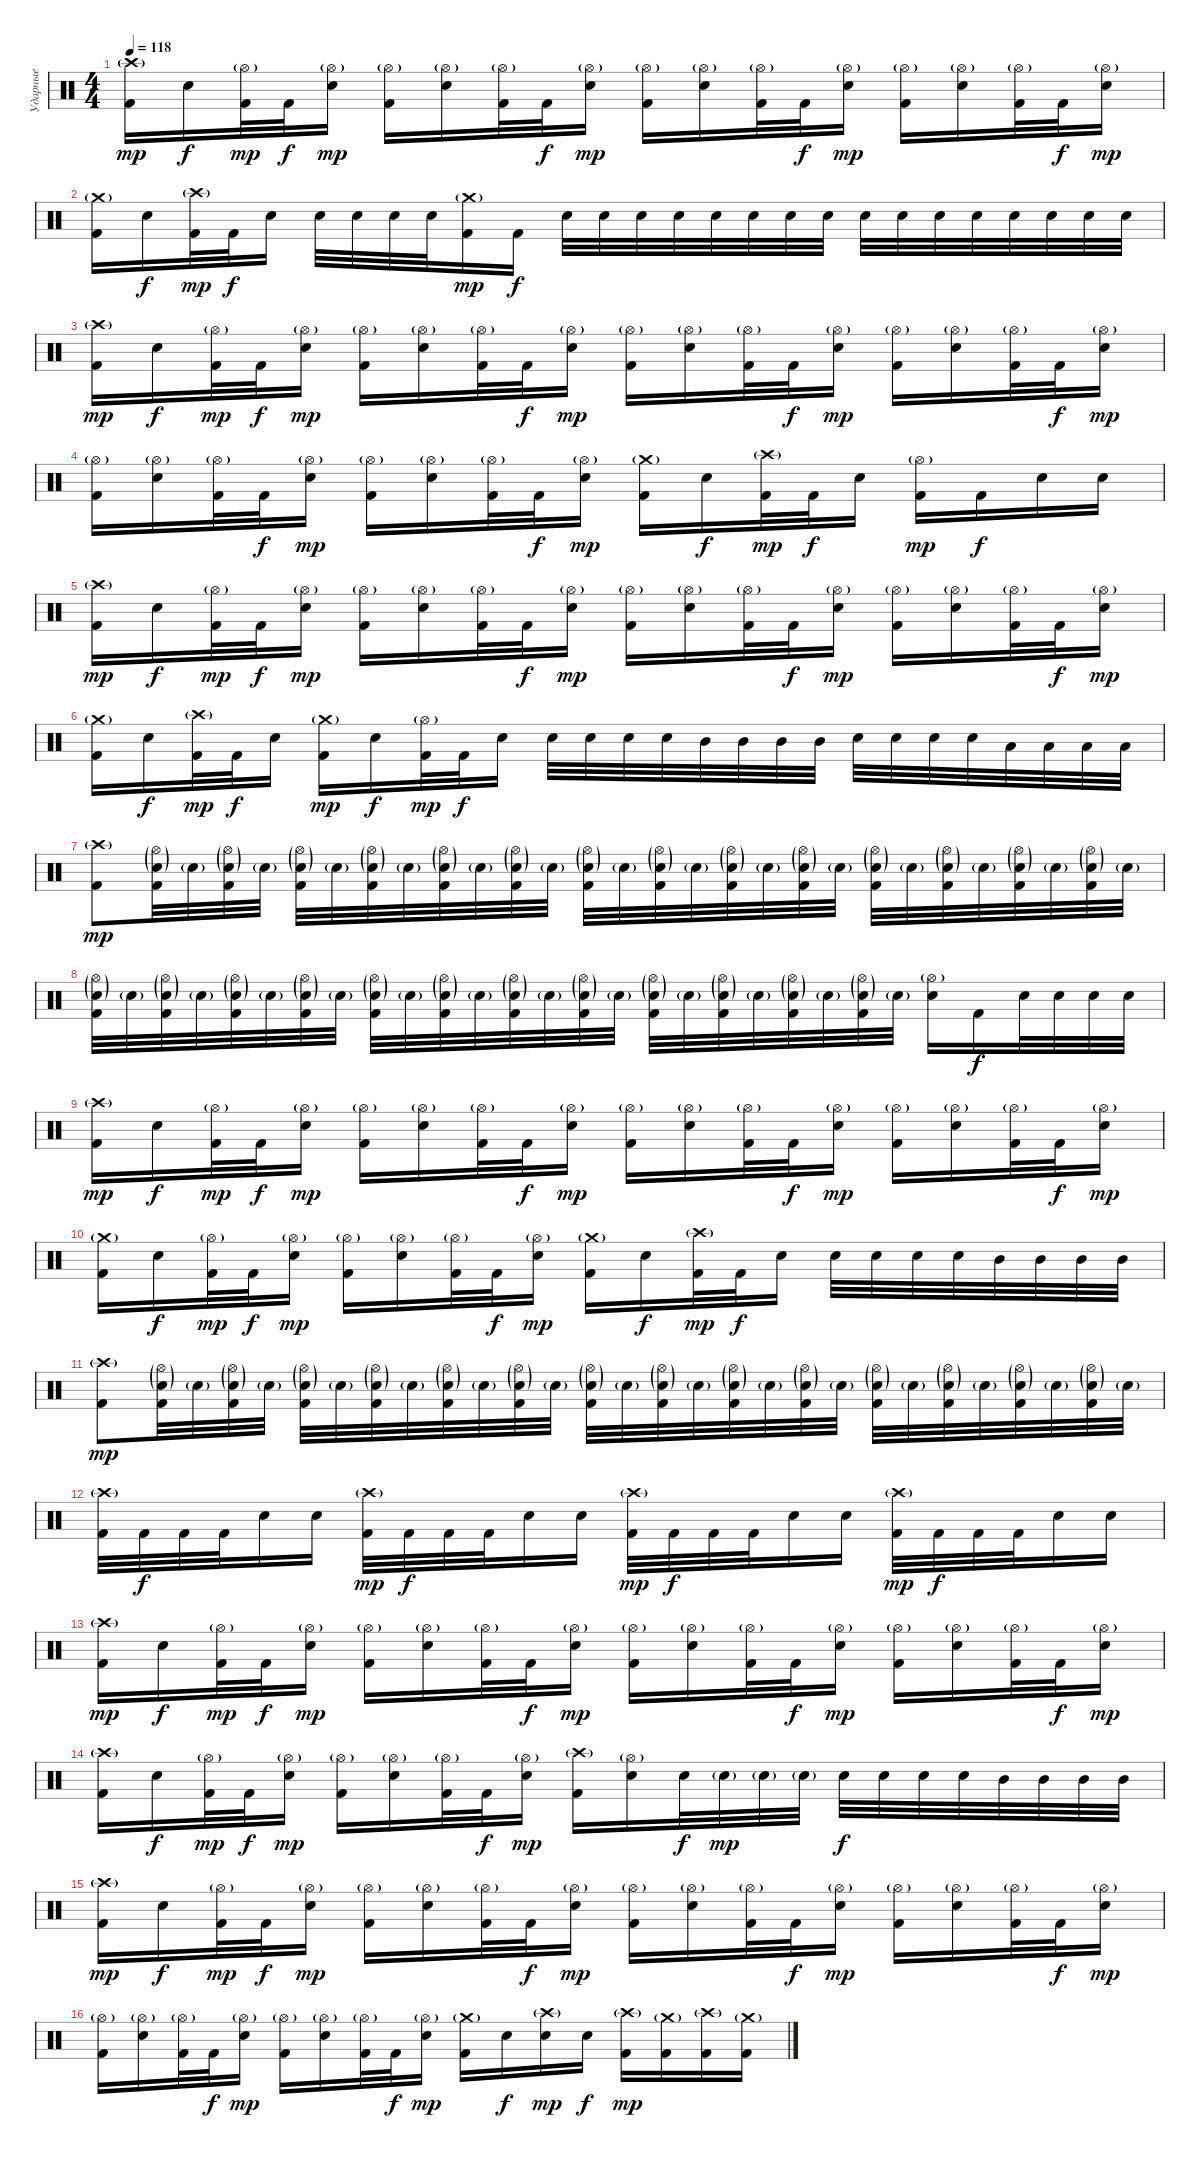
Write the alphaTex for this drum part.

\track ("Ударные" "Ударные") {instrument percussion}
\staff {score}
\articulation defaults
\ts (4 4)
\tempo 118
\clef neutral
\ks c
("Crash high (hit)"{g} "Kick (hit) 2").16{dy mp} "Electric Snare (hit)".16{dy f} ("Hi-Hat (open)"{g} "Kick (hit) 2").32{dy mp} "Kick (hit) 2".32{dy f} ("Hi-Hat (open)"{g} "Electric Snare (hit)").16{dy mp} ("Hi-Hat (open)"{g} "Kick (hit) 2").16 ("Hi-Hat (open)"{g} "Electric Snare (hit)").16 ("Hi-Hat (open)"{g} "Kick (hit) 2").32 "Kick (hit) 2".32{dy f} ("Hi-Hat (open)"{g} "Electric Snare (hit)").16{dy mp} ("Hi-Hat (open)"{g} "Kick (hit) 2").16 ("Hi-Hat (open)"{g} "Electric Snare (hit)").16 ("Hi-Hat (open)"{g} "Kick (hit) 2").32 "Kick (hit) 2".32{dy f} ("Hi-Hat (open)"{g} "Electric Snare (hit)").16{dy mp} ("Hi-Hat (open)"{g} "Kick (hit) 2").16 ("Hi-Hat (open)"{g} "Electric Snare (hit)").16 ("Hi-Hat (open)"{g} "Kick (hit) 2").32 "Kick (hit) 2".32{dy f} ("Hi-Hat (open)"{g} "Electric Snare (hit)").16{dy mp} |
("Crash medium (hit)"{g} "Kick (hit) 2").16 "Electric Snare (hit)".16{dy f} ("Crash high (hit)"{g} "Kick (hit) 2").32{dy mp} "Kick (hit) 2".32{dy f} "Electric Snare (hit)".16 "Electric Snare (hit)".32 "Electric Snare (hit)".32 "Electric Snare (hit)".32 "Electric Snare (hit)".32 ("Crash medium (hit)"{g} "Kick (hit) 2").16{dy mp} "Kick (hit) 2".16{dy f} "Electric Snare (hit)".32 "Electric Snare (hit)".32 "Electric Snare (hit)".32 "Electric Snare (hit)".32 "Electric Snare (hit)".32 "Electric Snare (hit)".32 "Electric Snare (hit)".32 "Electric Snare (hit)".32 "Electric Snare (hit)".32 "Electric Snare (hit)".32 "Electric Snare (hit)".32 "Electric Snare (hit)".32 "Electric Snare (hit)".32 "Electric Snare (hit)".32 "Electric Snare (hit)".32 "Electric Snare (hit)".32 |
("Crash high (hit)"{g} "Kick (hit) 2").16{dy mp} "Electric Snare (hit)".16{dy f} ("Hi-Hat (open)"{g} "Kick (hit) 2").32{dy mp} "Kick (hit) 2".32{dy f} ("Hi-Hat (open)"{g} "Electric Snare (hit)").16{dy mp} ("Hi-Hat (open)"{g} "Kick (hit) 2").16 ("Hi-Hat (open)"{g} "Electric Snare (hit)").16 ("Hi-Hat (open)"{g} "Kick (hit) 2").32 "Kick (hit) 2".32{dy f} ("Hi-Hat (open)"{g} "Electric Snare (hit)").16{dy mp} ("Hi-Hat (open)"{g} "Kick (hit) 2").16 ("Hi-Hat (open)"{g} "Electric Snare (hit)").16 ("Hi-Hat (open)"{g} "Kick (hit) 2").32 "Kick (hit) 2".32{dy f} ("Hi-Hat (open)"{g} "Electric Snare (hit)").16{dy mp} ("Hi-Hat (open)"{g} "Kick (hit) 2").16 ("Hi-Hat (open)"{g} "Electric Snare (hit)").16 ("Hi-Hat (open)"{g} "Kick (hit) 2").32 "Kick (hit) 2".32{dy f} ("Hi-Hat (open)"{g} "Electric Snare (hit)").16{dy mp} |
("Hi-Hat (open)"{g} "Kick (hit) 2").16 ("Hi-Hat (open)"{g} "Electric Snare (hit)").16 ("Hi-Hat (open)"{g} "Kick (hit) 2").32 "Kick (hit) 2".32{dy f} ("Hi-Hat (open)"{g} "Electric Snare (hit)").16{dy mp} ("Hi-Hat (open)"{g} "Kick (hit) 2").16 ("Hi-Hat (open)"{g} "Electric Snare (hit)").16 ("Hi-Hat (open)"{g} "Kick (hit) 2").32 "Kick (hit) 2".32{dy f} ("Hi-Hat (open)"{g} "Electric Snare (hit)").16{dy mp} ("Crash medium (hit)"{g} "Kick (hit) 2").16 "Electric Snare (hit)".16{dy f} ("Crash high (hit)"{g} "Kick (hit) 2").32{dy mp} "Kick (hit) 2".32{dy f} "Electric Snare (hit)".16 ("Hi-Hat (open)"{g} "Kick (hit) 2").16{dy mp} "Kick (hit) 2".16{dy f} "Electric Snare (hit)".16 "Electric Snare (hit)".16 |
("Crash high (hit)"{g} "Kick (hit) 2").16{dy mp} "Electric Snare (hit)".16{dy f} ("Hi-Hat (open)"{g} "Kick (hit) 2").32{dy mp} "Kick (hit) 2".32{dy f} ("Hi-Hat (open)"{g} "Electric Snare (hit)").16{dy mp} ("Hi-Hat (open)"{g} "Kick (hit) 2").16 ("Hi-Hat (open)"{g} "Electric Snare (hit)").16 ("Hi-Hat (open)"{g} "Kick (hit) 2").32 "Kick (hit) 2".32{dy f} ("Hi-Hat (open)"{g} "Electric Snare (hit)").16{dy mp} ("Hi-Hat (open)"{g} "Kick (hit) 2").16 ("Hi-Hat (open)"{g} "Electric Snare (hit)").16 ("Hi-Hat (open)"{g} "Kick (hit) 2").32 "Kick (hit) 2".32{dy f} ("Hi-Hat (open)"{g} "Electric Snare (hit)").16{dy mp} ("Hi-Hat (open)"{g} "Kick (hit) 2").16 ("Hi-Hat (open)"{g} "Electric Snare (hit)").16 ("Hi-Hat (open)"{g} "Kick (hit) 2").32 "Kick (hit) 2".32{dy f} ("Hi-Hat (open)"{g} "Electric Snare (hit)").16{dy mp} |
("Crash medium (hit)"{g} "Kick (hit) 2").16 "Electric Snare (hit)".16{dy f} ("Crash high (hit)"{g} "Kick (hit) 2").32{dy mp} "Kick (hit) 2".32{dy f} "Electric Snare (hit)".16 ("Crash medium (hit)"{g} "Kick (hit) 2").16{dy mp} "Electric Snare (hit)".16{dy f} ("Hi-Hat (open)"{g} "Kick (hit) 2").32{dy mp} "Kick (hit) 2".32{dy f} "Electric Snare (hit)".16 "Electric Snare (hit)".32 "Electric Snare (hit)".32 "Electric Snare (hit)".32 "Electric Snare (hit)".32 "Mid Tom (hit)".32 "Mid Tom (hit)".32 "Mid Tom (hit)".32 "Mid Tom (hit)".32 "Electric Snare (hit)".32 "Electric Snare (hit)".32 "Electric Snare (hit)".32 "Electric Snare (hit)".32 "Low Tom (hit)".32 "Low Tom (hit)".32 "Low Tom (hit)".32 "Low Tom (hit)".32 |
("Crash high (hit)"{g} "Kick (hit) 2").8{dy mp} ("Hi-Hat (open)"{g} "Electric Snare (hit)"{g} "Kick (hit) 2").32 "Electric Snare (hit)"{g}.32 ("Hi-Hat (open)"{g} "Electric Snare (hit)"{g} "Kick (hit) 2").32 "Electric Snare (hit)"{g}.32 ("Hi-Hat (open)"{g} "Electric Snare (hit)"{g} "Kick (hit) 2").32 "Electric Snare (hit)"{g}.32 ("Hi-Hat (open)"{g} "Electric Snare (hit)"{g} "Kick (hit) 2").32 "Electric Snare (hit)"{g}.32 ("Hi-Hat (open)"{g} "Electric Snare (hit)"{g} "Kick (hit) 2").32 "Electric Snare (hit)"{g}.32 ("Hi-Hat (open)"{g} "Electric Snare (hit)"{g} "Kick (hit) 2").32 "Electric Snare (hit)"{g}.32 ("Hi-Hat (open)"{g} "Electric Snare (hit)"{g} "Kick (hit) 2").32 "Electric Snare (hit)"{g}.32 ("Hi-Hat (open)"{g} "Electric Snare (hit)"{g} "Kick (hit) 2").32 "Electric Snare (hit)"{g}.32 ("Hi-Hat (open)"{g} "Electric Snare (hit)"{g} "Kick (hit) 2").32 "Electric Snare (hit)"{g}.32 ("Hi-Hat (open)"{g} "Electric Snare (hit)"{g} "Kick (hit) 2").32 "Electric Snare (hit)"{g}.32 ("Hi-Hat (open)"{g} "Electric Snare (hit)"{g} "Kick (hit) 2").32 "Electric Snare (hit)"{g}.32 ("Hi-Hat (open)"{g} "Electric Snare (hit)"{g} "Kick (hit) 2").32 "Electric Snare (hit)"{g}.32 ("Hi-Hat (open)"{g} "Electric Snare (hit)"{g} "Kick (hit) 2").32 "Electric Snare (hit)"{g}.32 ("Hi-Hat (open)"{g} "Electric Snare (hit)"{g} "Kick (hit) 2").32 "Electric Snare (hit)"{g}.32 |
("Hi-Hat (open)"{g} "Electric Snare (hit)"{g} "Kick (hit) 2").32 "Electric Snare (hit)"{g}.32 ("Hi-Hat (open)"{g} "Electric Snare (hit)"{g} "Kick (hit) 2").32 "Electric Snare (hit)"{g}.32 ("Hi-Hat (open)"{g} "Electric Snare (hit)"{g} "Kick (hit) 2").32 "Electric Snare (hit)"{g}.32 ("Hi-Hat (open)"{g} "Electric Snare (hit)"{g} "Kick (hit) 2").32 "Electric Snare (hit)"{g}.32 ("Hi-Hat (open)"{g} "Electric Snare (hit)"{g} "Kick (hit) 2").32 "Electric Snare (hit)"{g}.32 ("Hi-Hat (open)"{g} "Electric Snare (hit)"{g} "Kick (hit) 2").32 "Electric Snare (hit)"{g}.32 ("Hi-Hat (open)"{g} "Electric Snare (hit)"{g} "Kick (hit) 2").32 "Electric Snare (hit)"{g}.32 ("Hi-Hat (open)"{g} "Electric Snare (hit)"{g} "Kick (hit) 2").32 "Electric Snare (hit)"{g}.32 ("Hi-Hat (open)"{g} "Electric Snare (hit)"{g} "Kick (hit) 2").32 "Electric Snare (hit)"{g}.32 ("Hi-Hat (open)"{g} "Electric Snare (hit)"{g} "Kick (hit) 2").32 "Electric Snare (hit)"{g}.32 ("Hi-Hat (open)"{g} "Electric Snare (hit)"{g} "Kick (hit) 2").32 "Electric Snare (hit)"{g}.32 ("Hi-Hat (open)"{g} "Electric Snare (hit)"{g} "Kick (hit) 2").32 "Electric Snare (hit)"{g}.32 ("Hi-Hat (open)"{g} "Electric Snare (hit)").16 "Kick (hit) 2".16{dy f} "Electric Snare (hit)".32 "Electric Snare (hit)".32 "Electric Snare (hit)".32 "Electric Snare (hit)".32 |
("Crash high (hit)"{g} "Kick (hit) 2").16{dy mp} "Electric Snare (hit)".16{dy f} ("Hi-Hat (open)"{g} "Kick (hit) 2").32{dy mp} "Kick (hit) 2".32{dy f} ("Hi-Hat (open)"{g} "Electric Snare (hit)").16{dy mp} ("Hi-Hat (open)"{g} "Kick (hit) 2").16 ("Hi-Hat (open)"{g} "Electric Snare (hit)").16 ("Hi-Hat (open)"{g} "Kick (hit) 2").32 "Kick (hit) 2".32{dy f} ("Hi-Hat (open)"{g} "Electric Snare (hit)").16{dy mp} ("Hi-Hat (open)"{g} "Kick (hit) 2").16 ("Hi-Hat (open)"{g} "Electric Snare (hit)").16 ("Hi-Hat (open)"{g} "Kick (hit) 2").32 "Kick (hit) 2".32{dy f} ("Hi-Hat (open)"{g} "Electric Snare (hit)").16{dy mp} ("Hi-Hat (open)"{g} "Kick (hit) 2").16 ("Hi-Hat (open)"{g} "Electric Snare (hit)").16 ("Hi-Hat (open)"{g} "Kick (hit) 2").32 "Kick (hit) 2".32{dy f} ("Hi-Hat (open)"{g} "Electric Snare (hit)").16{dy mp} |
("Crash medium (hit)"{g} "Kick (hit) 2").16 "Electric Snare (hit)".16{dy f} ("Hi-Hat (open)"{g} "Kick (hit) 2").32{dy mp} "Kick (hit) 2".32{dy f} ("Hi-Hat (open)"{g} "Electric Snare (hit)").16{dy mp} ("Hi-Hat (open)"{g} "Kick (hit) 2").16 ("Hi-Hat (open)"{g} "Electric Snare (hit)").16 ("Hi-Hat (open)"{g} "Kick (hit) 2").32 "Kick (hit) 2".32{dy f} ("Hi-Hat (open)"{g} "Electric Snare (hit)").16{dy mp} ("Crash medium (hit)"{g} "Kick (hit) 2").16 "Electric Snare (hit)".16{dy f} ("Crash high (hit)"{g} "Kick (hit) 2").32{dy mp} "Kick (hit) 2".32{dy f} "Electric Snare (hit)".16 "Electric Snare (hit)".32 "Electric Snare (hit)".32 "Electric Snare (hit)".32 "Electric Snare (hit)".32 "Mid Tom (hit)".32 "Mid Tom (hit)".32 "Mid Tom (hit)".32 "Mid Tom (hit)".32 |
("Crash high (hit)"{g} "Kick (hit) 2").8{dy mp} ("Hi-Hat (open)"{g} "Electric Snare (hit)"{g} "Kick (hit) 2").32 "Electric Snare (hit)"{g}.32 ("Hi-Hat (open)"{g} "Electric Snare (hit)"{g} "Kick (hit) 2").32 "Electric Snare (hit)"{g}.32 ("Hi-Hat (open)"{g} "Electric Snare (hit)"{g} "Kick (hit) 2").32 "Electric Snare (hit)"{g}.32 ("Hi-Hat (open)"{g} "Electric Snare (hit)"{g} "Kick (hit) 2").32 "Electric Snare (hit)"{g}.32 ("Hi-Hat (open)"{g} "Electric Snare (hit)"{g} "Kick (hit) 2").32 "Electric Snare (hit)"{g}.32 ("Hi-Hat (open)"{g} "Electric Snare (hit)"{g} "Kick (hit) 2").32 "Electric Snare (hit)"{g}.32 ("Hi-Hat (open)"{g} "Electric Snare (hit)"{g} "Kick (hit) 2").32 "Electric Snare (hit)"{g}.32 ("Hi-Hat (open)"{g} "Electric Snare (hit)"{g} "Kick (hit) 2").32 "Electric Snare (hit)"{g}.32 ("Hi-Hat (open)"{g} "Electric Snare (hit)"{g} "Kick (hit) 2").32 "Electric Snare (hit)"{g}.32 ("Hi-Hat (open)"{g} "Electric Snare (hit)"{g} "Kick (hit) 2").32 "Electric Snare (hit)"{g}.32 ("Hi-Hat (open)"{g} "Electric Snare (hit)"{g} "Kick (hit) 2").32 "Electric Snare (hit)"{g}.32 ("Hi-Hat (open)"{g} "Electric Snare (hit)"{g} "Kick (hit) 2").32 "Electric Snare (hit)"{g}.32 ("Hi-Hat (open)"{g} "Electric Snare (hit)"{g} "Kick (hit) 2").32 "Electric Snare (hit)"{g}.32 ("Hi-Hat (open)"{g} "Electric Snare (hit)"{g} "Kick (hit) 2").32 "Electric Snare (hit)"{g}.32 |
("Crash high (hit)"{g} "Kick (hit) 2").32 "Kick (hit) 2".32{dy f} "Kick (hit) 2".32 "Kick (hit) 2".32 "Electric Snare (hit)".16 "Electric Snare (hit)".16 ("Crash high (hit)"{g} "Kick (hit) 2").32{dy mp} "Kick (hit) 2".32{dy f} "Kick (hit) 2".32 "Kick (hit) 2".32 "Electric Snare (hit)".16 "Electric Snare (hit)".16 ("Crash high (hit)"{g} "Kick (hit) 2").32{dy mp} "Kick (hit) 2".32{dy f} "Kick (hit) 2".32 "Kick (hit) 2".32 "Electric Snare (hit)".16 "Electric Snare (hit)".16 ("Crash high (hit)"{g} "Kick (hit) 2").32{dy mp} "Kick (hit) 2".32{dy f} "Kick (hit) 2".32 "Kick (hit) 2".32 "Electric Snare (hit)".16 "Electric Snare (hit)".16 |
("Crash high (hit)"{g} "Kick (hit) 2").16{dy mp} "Electric Snare (hit)".16{dy f} ("Hi-Hat (open)"{g} "Kick (hit) 2").32{dy mp} "Kick (hit) 2".32{dy f} ("Hi-Hat (open)"{g} "Electric Snare (hit)").16{dy mp} ("Hi-Hat (open)"{g} "Kick (hit) 2").16 ("Hi-Hat (open)"{g} "Electric Snare (hit)").16 ("Hi-Hat (open)"{g} "Kick (hit) 2").32 "Kick (hit) 2".32{dy f} ("Hi-Hat (open)"{g} "Electric Snare (hit)").16{dy mp} ("Hi-Hat (open)"{g} "Kick (hit) 2").16 ("Hi-Hat (open)"{g} "Electric Snare (hit)").16 ("Hi-Hat (open)"{g} "Kick (hit) 2").32 "Kick (hit) 2".32{dy f} ("Hi-Hat (open)"{g} "Electric Snare (hit)").16{dy mp} ("Hi-Hat (open)"{g} "Kick (hit) 2").16 ("Hi-Hat (open)"{g} "Electric Snare (hit)").16 ("Hi-Hat (open)"{g} "Kick (hit) 2").32 "Kick (hit) 2".32{dy f} ("Hi-Hat (open)"{g} "Electric Snare (hit)").16{dy mp} |
("Crash high (hit)"{g} "Kick (hit) 2").16 "Electric Snare (hit)".16{dy f} ("Hi-Hat (open)"{g} "Kick (hit) 2").32{dy mp} "Kick (hit) 2".32{dy f} ("Hi-Hat (open)"{g} "Electric Snare (hit)").16{dy mp} ("Hi-Hat (open)"{g} "Kick (hit) 2").16 ("Hi-Hat (open)"{g} "Electric Snare (hit)").16 ("Hi-Hat (open)"{g} "Kick (hit) 2").32 "Kick (hit) 2".32{dy f} ("Hi-Hat (open)"{g} "Electric Snare (hit)").16{dy mp} ("Crash high (hit)"{g} "Kick (hit) 2").16 ("Hi-Hat (open)"{g} "Electric Snare (hit)").16 "Electric Snare (hit)".32{dy f} "Electric Snare (hit)"{g}.32{dy mp} "Electric Snare (hit)"{g}.32 "Electric Snare (hit)"{g}.32 "Electric Snare (hit)".32{dy f} "Electric Snare (hit)".32 "Electric Snare (hit)".32 "Electric Snare (hit)".32 "Mid Tom (hit)".32 "Mid Tom (hit)".32 "Mid Tom (hit)".32 "Mid Tom (hit)".32 |
("Crash high (hit)"{g} "Kick (hit) 2").16{dy mp} "Electric Snare (hit)".16{dy f} ("Hi-Hat (open)"{g} "Kick (hit) 2").32{dy mp} "Kick (hit) 2".32{dy f} ("Hi-Hat (open)"{g} "Electric Snare (hit)").16{dy mp} ("Hi-Hat (open)"{g} "Kick (hit) 2").16 ("Hi-Hat (open)"{g} "Electric Snare (hit)").16 ("Hi-Hat (open)"{g} "Kick (hit) 2").32 "Kick (hit) 2".32{dy f} ("Hi-Hat (open)"{g} "Electric Snare (hit)").16{dy mp} ("Hi-Hat (open)"{g} "Kick (hit) 2").16 ("Hi-Hat (open)"{g} "Electric Snare (hit)").16 ("Hi-Hat (open)"{g} "Kick (hit) 2").32 "Kick (hit) 2".32{dy f} ("Hi-Hat (open)"{g} "Electric Snare (hit)").16{dy mp} ("Hi-Hat (open)"{g} "Kick (hit) 2").16 ("Hi-Hat (open)"{g} "Electric Snare (hit)").16 ("Hi-Hat (open)"{g} "Kick (hit) 2").32 "Kick (hit) 2".32{dy f} ("Hi-Hat (open)"{g} "Electric Snare (hit)").16{dy mp} |
("Hi-Hat (open)"{g} "Kick (hit) 2").16 ("Hi-Hat (open)"{g} "Electric Snare (hit)").16 ("Hi-Hat (open)"{g} "Kick (hit) 2").32 "Kick (hit) 2".32{dy f} ("Hi-Hat (open)"{g} "Electric Snare (hit)").16{dy mp} ("Hi-Hat (open)"{g} "Kick (hit) 2").16 ("Hi-Hat (open)"{g} "Electric Snare (hit)").16 ("Hi-Hat (open)"{g} "Kick (hit) 2").32 "Kick (hit) 2".32{dy f} ("Hi-Hat (open)"{g} "Electric Snare (hit)").16{dy mp} ("Crash medium (hit)"{g} "Kick (hit) 2").16 "Electric Snare (hit)".16{dy f} ("Crash high (hit)"{g} "Electric Snare (hit)").16{dy mp} "Electric Snare (hit)".16{dy f} ("Crash high (hit)"{g} "Kick (hit) 2").16{dy mp} ("Crash medium (hit)"{g} "Kick (hit) 2").16 ("Crash high (hit)"{g} "Kick (hit) 2").16 ("Crash medium (hit)"{g} "Kick (hit) 2").16
